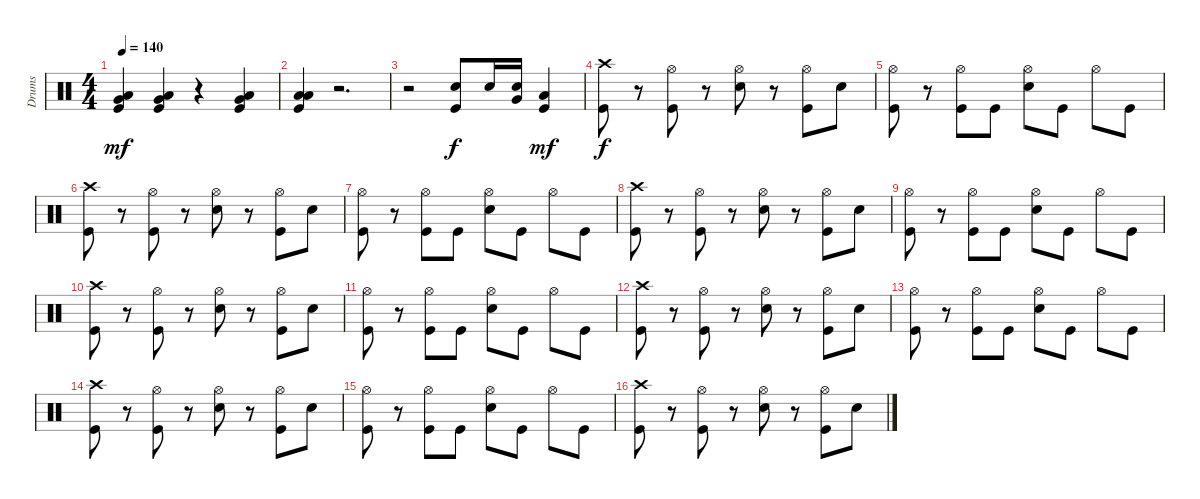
\track ("Drums" "Drums") {instrument percussion}
\staff {score}
\articulation defaults
\ts (4 4)
\tempo 140
\clef neutral
\ks c
("Very Low Tom (hit)" "Low Floor Tom (hit)" "Kick (hit)").4{dy mf} ("Very Low Tom (hit)" "Low Floor Tom (hit)" "Kick (hit)").4 r.4 ("Very Low Tom (hit)" "Low Floor Tom (hit)" "Kick (hit)").4 |
("Low Floor Tom (hit)" "Low Floor Tom (hit)" "Kick (hit)").4 r.2{d} |
r.2 ("Snare (hit) 2" "Kick (hit)").8{dy f} "Snare (hit) 2".16 ("Very Low Tom (hit)" "Snare (hit) 2").16 ("Low Floor Tom (hit)" "Kick (hit)").4{dy mf} |
("Crash high (hit)" "Kick (hit)").8{dy f} r.8 ("Hi-Hat (open)" "Kick (hit)").8 r.8 ("Hi-Hat (open)" "Snare (hit) 2").8 r.8 ("Hi-Hat (open)" "Kick (hit)").8 "Snare (hit) 2".8 |
("Hi-Hat (open)" "Kick (hit)").8 r.8 ("Hi-Hat (open)" "Kick (hit)").8 "Kick (hit)".8 ("Hi-Hat (open)" "Snare (hit) 2").8 "Kick (hit)".8 "Hi-Hat (open)".8 "Kick (hit)".8 |
("Crash high (hit)" "Kick (hit)").8 r.8 ("Hi-Hat (open)" "Kick (hit)").8 r.8 ("Hi-Hat (open)" "Snare (hit) 2").8 r.8 ("Hi-Hat (open)" "Kick (hit)").8 "Snare (hit) 2".8 |
("Hi-Hat (open)" "Kick (hit)").8 r.8 ("Hi-Hat (open)" "Kick (hit)").8 "Kick (hit)".8 ("Hi-Hat (open)" "Snare (hit) 2").8 "Kick (hit)".8 "Hi-Hat (open)".8 "Kick (hit)".8 |
("Crash high (hit)" "Kick (hit)").8 r.8 ("Hi-Hat (open)" "Kick (hit)").8 r.8 ("Hi-Hat (open)" "Snare (hit) 2").8 r.8 ("Hi-Hat (open)" "Kick (hit)").8 "Snare (hit) 2".8 |
("Hi-Hat (open)" "Kick (hit)").8 r.8 ("Hi-Hat (open)" "Kick (hit)").8 "Kick (hit)".8 ("Hi-Hat (open)" "Snare (hit) 2").8 "Kick (hit)".8 "Hi-Hat (open)".8 "Kick (hit)".8 |
("Crash high (hit)" "Kick (hit)").8 r.8 ("Hi-Hat (open)" "Kick (hit)").8 r.8 ("Hi-Hat (open)" "Snare (hit) 2").8 r.8 ("Hi-Hat (open)" "Kick (hit)").8 "Snare (hit) 2".8 |
("Hi-Hat (open)" "Kick (hit)").8 r.8 ("Hi-Hat (open)" "Kick (hit)").8 "Kick (hit)".8 ("Hi-Hat (open)" "Snare (hit) 2").8 "Kick (hit)".8 "Hi-Hat (open)".8 "Kick (hit)".8 |
("Crash high (hit)" "Kick (hit)").8 r.8 ("Hi-Hat (open)" "Kick (hit)").8 r.8 ("Hi-Hat (open)" "Snare (hit) 2").8 r.8 ("Hi-Hat (open)" "Kick (hit)").8 "Snare (hit) 2".8 |
("Hi-Hat (open)" "Kick (hit)").8 r.8 ("Hi-Hat (open)" "Kick (hit)").8 "Kick (hit)".8 ("Hi-Hat (open)" "Snare (hit) 2").8 "Kick (hit)".8 "Hi-Hat (open)".8 "Kick (hit)".8 |
("Crash high (hit)" "Kick (hit)").8 r.8 ("Hi-Hat (open)" "Kick (hit)").8 r.8 ("Hi-Hat (open)" "Snare (hit) 2").8 r.8 ("Hi-Hat (open)" "Kick (hit)").8 "Snare (hit) 2".8 |
("Hi-Hat (open)" "Kick (hit)").8 r.8 ("Hi-Hat (open)" "Kick (hit)").8 "Kick (hit)".8 ("Hi-Hat (open)" "Snare (hit) 2").8 "Kick (hit)".8 "Hi-Hat (open)".8 "Kick (hit)".8 |
("Crash high (hit)" "Kick (hit)").8 r.8 ("Hi-Hat (open)" "Kick (hit)").8 r.8 ("Hi-Hat (open)" "Snare (hit) 2").8 r.8 ("Hi-Hat (open)" "Kick (hit)").8 "Snare (hit) 2".8
